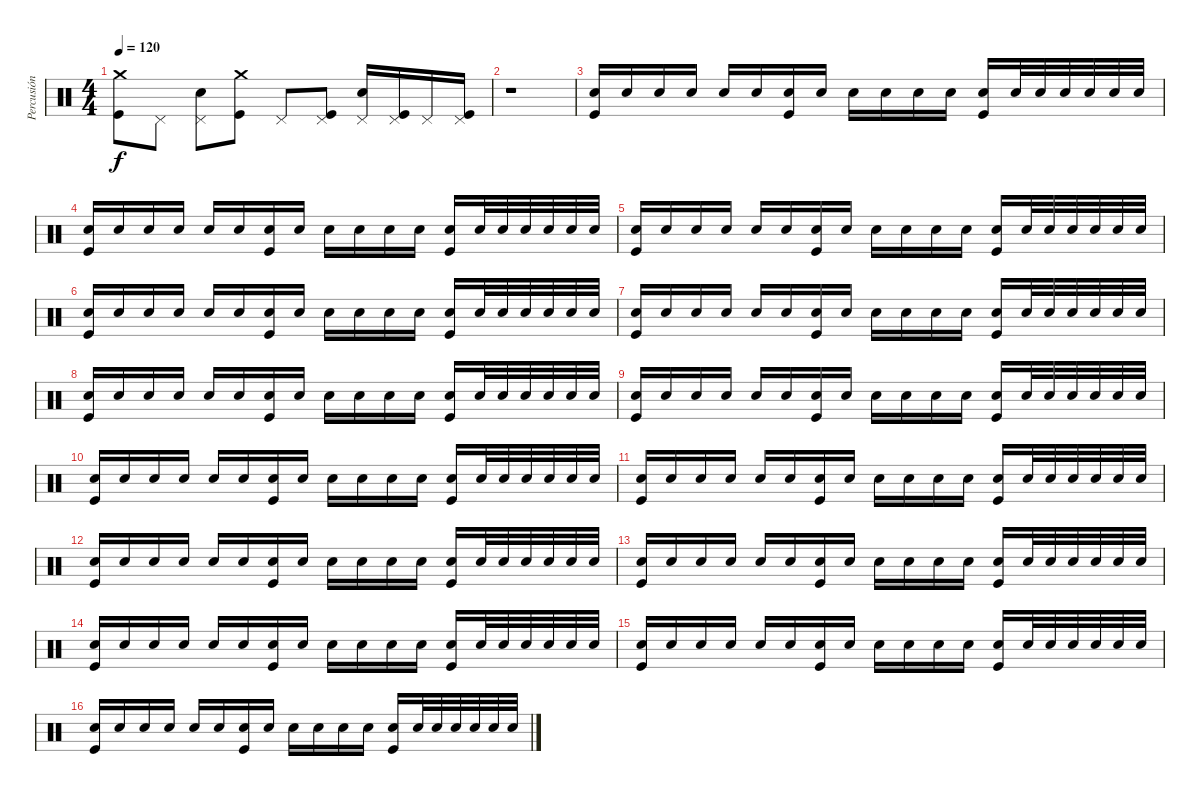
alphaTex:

\track ("Percusión" "Percusión") {instrument percussion}
\staff {score}
\articulation defaults
\ts (4 4)
\tempo 120
\clef neutral
\ks c
("Crash medium (hit)" "Kick (hit)").8{dy f} "Pedal Hi-Hat (hit)".8 ("Pedal Hi-Hat (hit)" "Electric Snare (hit)").8 ("Crash medium (hit)" "Kick (hit)").8 "Pedal Hi-Hat (hit)".8 ("Pedal Hi-Hat (hit)" "Kick (hit)").8 ("Pedal Hi-Hat (hit)" "Electric Snare (hit)").16 ("Pedal Hi-Hat (hit)" "Kick (hit)").16 "Pedal Hi-Hat (hit)".16 ("Pedal Hi-Hat (hit)" "Kick (hit)").16 |
r.1 |
("Electric Snare (hit)" "Kick (hit)").16 "Electric Snare (hit)".16 "Electric Snare (hit)".16 "Electric Snare (hit)".16 "Electric Snare (hit)".16 "Electric Snare (hit)".16 ("Electric Snare (hit)" "Kick (hit)").16 "Electric Snare (hit)".16 "Electric Snare (hit)".16 "Electric Snare (hit)".16 "Electric Snare (hit)".16 "Electric Snare (hit)".16 ("Electric Snare (hit)" "Kick (hit)").16 "Electric Snare (hit)".32 "Electric Snare (hit)".32 "Electric Snare (hit)".32 "Electric Snare (hit)".32 "Electric Snare (hit)".32 "Electric Snare (hit)".32 |
("Electric Snare (hit)" "Kick (hit)").16 "Electric Snare (hit)".16 "Electric Snare (hit)".16 "Electric Snare (hit)".16 "Electric Snare (hit)".16 "Electric Snare (hit)".16 ("Electric Snare (hit)" "Kick (hit)").16 "Electric Snare (hit)".16 "Electric Snare (hit)".16 "Electric Snare (hit)".16 "Electric Snare (hit)".16 "Electric Snare (hit)".16 ("Electric Snare (hit)" "Kick (hit)").16 "Electric Snare (hit)".32 "Electric Snare (hit)".32 "Electric Snare (hit)".32 "Electric Snare (hit)".32 "Electric Snare (hit)".32 "Electric Snare (hit)".32 |
("Electric Snare (hit)" "Kick (hit)").16 "Electric Snare (hit)".16 "Electric Snare (hit)".16 "Electric Snare (hit)".16 "Electric Snare (hit)".16 "Electric Snare (hit)".16 ("Electric Snare (hit)" "Kick (hit)").16 "Electric Snare (hit)".16 "Electric Snare (hit)".16 "Electric Snare (hit)".16 "Electric Snare (hit)".16 "Electric Snare (hit)".16 ("Electric Snare (hit)" "Kick (hit)").16 "Electric Snare (hit)".32 "Electric Snare (hit)".32 "Electric Snare (hit)".32 "Electric Snare (hit)".32 "Electric Snare (hit)".32 "Electric Snare (hit)".32 |
("Electric Snare (hit)" "Kick (hit)").16 "Electric Snare (hit)".16 "Electric Snare (hit)".16 "Electric Snare (hit)".16 "Electric Snare (hit)".16 "Electric Snare (hit)".16 ("Electric Snare (hit)" "Kick (hit)").16 "Electric Snare (hit)".16 "Electric Snare (hit)".16 "Electric Snare (hit)".16 "Electric Snare (hit)".16 "Electric Snare (hit)".16 ("Electric Snare (hit)" "Kick (hit)").16 "Electric Snare (hit)".32 "Electric Snare (hit)".32 "Electric Snare (hit)".32 "Electric Snare (hit)".32 "Electric Snare (hit)".32 "Electric Snare (hit)".32 |
("Electric Snare (hit)" "Kick (hit)").16 "Electric Snare (hit)".16 "Electric Snare (hit)".16 "Electric Snare (hit)".16 "Electric Snare (hit)".16 "Electric Snare (hit)".16 ("Electric Snare (hit)" "Kick (hit)").16 "Electric Snare (hit)".16 "Electric Snare (hit)".16 "Electric Snare (hit)".16 "Electric Snare (hit)".16 "Electric Snare (hit)".16 ("Electric Snare (hit)" "Kick (hit)").16 "Electric Snare (hit)".32 "Electric Snare (hit)".32 "Electric Snare (hit)".32 "Electric Snare (hit)".32 "Electric Snare (hit)".32 "Electric Snare (hit)".32 |
("Electric Snare (hit)" "Kick (hit)").16 "Electric Snare (hit)".16 "Electric Snare (hit)".16 "Electric Snare (hit)".16 "Electric Snare (hit)".16 "Electric Snare (hit)".16 ("Electric Snare (hit)" "Kick (hit)").16 "Electric Snare (hit)".16 "Electric Snare (hit)".16 "Electric Snare (hit)".16 "Electric Snare (hit)".16 "Electric Snare (hit)".16 ("Electric Snare (hit)" "Kick (hit)").16 "Electric Snare (hit)".32 "Electric Snare (hit)".32 "Electric Snare (hit)".32 "Electric Snare (hit)".32 "Electric Snare (hit)".32 "Electric Snare (hit)".32 |
("Electric Snare (hit)" "Kick (hit)").16 "Electric Snare (hit)".16 "Electric Snare (hit)".16 "Electric Snare (hit)".16 "Electric Snare (hit)".16 "Electric Snare (hit)".16 ("Electric Snare (hit)" "Kick (hit)").16 "Electric Snare (hit)".16 "Electric Snare (hit)".16 "Electric Snare (hit)".16 "Electric Snare (hit)".16 "Electric Snare (hit)".16 ("Electric Snare (hit)" "Kick (hit)").16 "Electric Snare (hit)".32 "Electric Snare (hit)".32 "Electric Snare (hit)".32 "Electric Snare (hit)".32 "Electric Snare (hit)".32 "Electric Snare (hit)".32 |
("Electric Snare (hit)" "Kick (hit)").16 "Electric Snare (hit)".16 "Electric Snare (hit)".16 "Electric Snare (hit)".16 "Electric Snare (hit)".16 "Electric Snare (hit)".16 ("Electric Snare (hit)" "Kick (hit)").16 "Electric Snare (hit)".16 "Electric Snare (hit)".16 "Electric Snare (hit)".16 "Electric Snare (hit)".16 "Electric Snare (hit)".16 ("Electric Snare (hit)" "Kick (hit)").16 "Electric Snare (hit)".32 "Electric Snare (hit)".32 "Electric Snare (hit)".32 "Electric Snare (hit)".32 "Electric Snare (hit)".32 "Electric Snare (hit)".32 |
("Electric Snare (hit)" "Kick (hit)").16 "Electric Snare (hit)".16 "Electric Snare (hit)".16 "Electric Snare (hit)".16 "Electric Snare (hit)".16 "Electric Snare (hit)".16 ("Electric Snare (hit)" "Kick (hit)").16 "Electric Snare (hit)".16 "Electric Snare (hit)".16 "Electric Snare (hit)".16 "Electric Snare (hit)".16 "Electric Snare (hit)".16 ("Electric Snare (hit)" "Kick (hit)").16 "Electric Snare (hit)".32 "Electric Snare (hit)".32 "Electric Snare (hit)".32 "Electric Snare (hit)".32 "Electric Snare (hit)".32 "Electric Snare (hit)".32 |
("Electric Snare (hit)" "Kick (hit)").16 "Electric Snare (hit)".16 "Electric Snare (hit)".16 "Electric Snare (hit)".16 "Electric Snare (hit)".16 "Electric Snare (hit)".16 ("Electric Snare (hit)" "Kick (hit)").16 "Electric Snare (hit)".16 "Electric Snare (hit)".16 "Electric Snare (hit)".16 "Electric Snare (hit)".16 "Electric Snare (hit)".16 ("Electric Snare (hit)" "Kick (hit)").16 "Electric Snare (hit)".32 "Electric Snare (hit)".32 "Electric Snare (hit)".32 "Electric Snare (hit)".32 "Electric Snare (hit)".32 "Electric Snare (hit)".32 |
("Electric Snare (hit)" "Kick (hit)").16 "Electric Snare (hit)".16 "Electric Snare (hit)".16 "Electric Snare (hit)".16 "Electric Snare (hit)".16 "Electric Snare (hit)".16 ("Electric Snare (hit)" "Kick (hit)").16 "Electric Snare (hit)".16 "Electric Snare (hit)".16 "Electric Snare (hit)".16 "Electric Snare (hit)".16 "Electric Snare (hit)".16 ("Electric Snare (hit)" "Kick (hit)").16 "Electric Snare (hit)".32 "Electric Snare (hit)".32 "Electric Snare (hit)".32 "Electric Snare (hit)".32 "Electric Snare (hit)".32 "Electric Snare (hit)".32 |
("Electric Snare (hit)" "Kick (hit)").16 "Electric Snare (hit)".16 "Electric Snare (hit)".16 "Electric Snare (hit)".16 "Electric Snare (hit)".16 "Electric Snare (hit)".16 ("Electric Snare (hit)" "Kick (hit)").16 "Electric Snare (hit)".16 "Electric Snare (hit)".16 "Electric Snare (hit)".16 "Electric Snare (hit)".16 "Electric Snare (hit)".16 ("Electric Snare (hit)" "Kick (hit)").16 "Electric Snare (hit)".32 "Electric Snare (hit)".32 "Electric Snare (hit)".32 "Electric Snare (hit)".32 "Electric Snare (hit)".32 "Electric Snare (hit)".32 |
("Electric Snare (hit)" "Kick (hit)").16 "Electric Snare (hit)".16 "Electric Snare (hit)".16 "Electric Snare (hit)".16 "Electric Snare (hit)".16 "Electric Snare (hit)".16 ("Electric Snare (hit)" "Kick (hit)").16 "Electric Snare (hit)".16 "Electric Snare (hit)".16 "Electric Snare (hit)".16 "Electric Snare (hit)".16 "Electric Snare (hit)".16 ("Electric Snare (hit)" "Kick (hit)").16 "Electric Snare (hit)".32 "Electric Snare (hit)".32 "Electric Snare (hit)".32 "Electric Snare (hit)".32 "Electric Snare (hit)".32 "Electric Snare (hit)".32 |
("Electric Snare (hit)" "Kick (hit)").16 "Electric Snare (hit)".16 "Electric Snare (hit)".16 "Electric Snare (hit)".16 "Electric Snare (hit)".16 "Electric Snare (hit)".16 ("Electric Snare (hit)" "Kick (hit)").16 "Electric Snare (hit)".16 "Electric Snare (hit)".16 "Electric Snare (hit)".16 "Electric Snare (hit)".16 "Electric Snare (hit)".16 ("Electric Snare (hit)" "Kick (hit)").16 "Electric Snare (hit)".32 "Electric Snare (hit)".32 "Electric Snare (hit)".32 "Electric Snare (hit)".32 "Electric Snare (hit)".32 "Electric Snare (hit)".32
